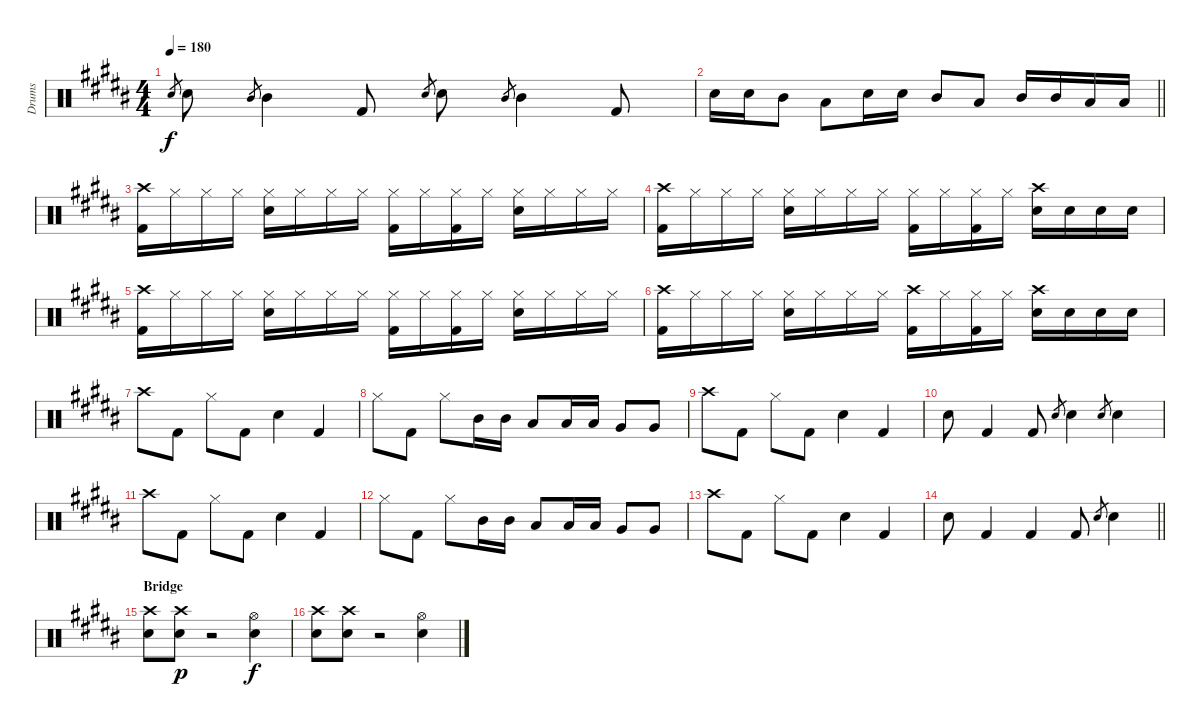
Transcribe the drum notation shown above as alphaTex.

\track ("Drums" "Drums") {instrument percussion}
\staff {score}
\articulation defaults
\ts (4 4)
\tempo 180
\clef neutral
\ks g#minor "Snare (hit) 2".8{gr dy f} "Snare (hit) 2".8 "Mid Tom (hit)".8{gr} "Mid Tom (hit)".4 "Kick (hit) 2".8 "Snare (hit) 2".8{gr} "Snare (hit) 2".8 "Mid Tom (hit)".8{gr} "Mid Tom (hit)".4 "Kick (hit) 2".8
|
\barLineRight lightlight "Snare (hit) 2".16 "Snare (hit) 2".16 "Mid Tom (hit)".8 "Low Tom (hit)".8 "Snare (hit) 2".16 "Snare (hit) 2".16 "Mid Tom (hit)".8 "Low Tom (hit)".8 "Mid Tom (hit)".16 "Mid Tom (hit)".16 "Low Tom (hit)".16 "Low Tom (hit)".16
|
("Crash high (hit)" "Kick (hit) 2").16 "Hi-Hat (closed)".16 "Hi-Hat (closed)".16 "Hi-Hat (closed)".16 ("Hi-Hat (closed)" "Snare (hit) 2").16 "Hi-Hat (closed)".16 "Hi-Hat (closed)".16 "Hi-Hat (closed)".16 ("Hi-Hat (closed)" "Kick (hit) 2").16 "Hi-Hat (closed)".16 ("Hi-Hat (closed)" "Kick (hit) 2").16 "Hi-Hat (closed)".16 ("Hi-Hat (closed)" "Snare (hit) 2").16 "Hi-Hat (closed)".16 "Hi-Hat (closed)".16 "Hi-Hat (closed)".16 |
("Crash high (hit)" "Kick (hit) 2").16 "Hi-Hat (closed)".16 "Hi-Hat (closed)".16 "Hi-Hat (closed)".16 ("Hi-Hat (closed)" "Snare (hit) 2").16 "Hi-Hat (closed)".16 "Hi-Hat (closed)".16 "Hi-Hat (closed)".16 ("Hi-Hat (closed)" "Kick (hit) 2").16 "Hi-Hat (closed)".16 ("Hi-Hat (closed)" "Kick (hit) 2").16 "Hi-Hat (closed)".16 ("Crash high (hit)" "Snare (hit) 2").16 "Snare (hit) 2".16 "Snare (hit) 2".16 "Snare (hit) 2".16 |
("Crash high (hit)" "Kick (hit) 2").16 "Hi-Hat (closed)".16 "Hi-Hat (closed)".16 "Hi-Hat (closed)".16 ("Hi-Hat (closed)" "Snare (hit) 2").16 "Hi-Hat (closed)".16 "Hi-Hat (closed)".16 "Hi-Hat (closed)".16 ("Hi-Hat (closed)" "Kick (hit) 2").16 "Hi-Hat (closed)".16 ("Hi-Hat (closed)" "Kick (hit) 2").16 "Hi-Hat (closed)".16 ("Hi-Hat (closed)" "Snare (hit) 2").16 "Hi-Hat (closed)".16 "Hi-Hat (closed)".16 "Hi-Hat (closed)".16 |
("Crash high (hit)" "Kick (hit) 2").16 "Hi-Hat (closed)".16 "Hi-Hat (closed)".16 "Hi-Hat (closed)".16 ("Hi-Hat (closed)" "Snare (hit) 2").16 "Hi-Hat (closed)".16 "Hi-Hat (closed)".16 "Hi-Hat (closed)".16 ("Crash high (hit)" "Kick (hit) 2").16 "Hi-Hat (closed)".16 ("Hi-Hat (closed)" "Kick (hit) 2").16 "Hi-Hat (closed)".16 ("Crash high (hit)" "Snare (hit) 2").16 "Snare (hit) 2".16 "Snare (hit) 2".16 "Snare (hit) 2".16 |
"Crash high (hit)".8 "Kick (hit) 2".8 "Hi-Hat (closed)".8 "Kick (hit) 2".8 "Snare (hit) 2".4 "Kick (hit) 2".4 |
"Hi-Hat (closed)".8 "Kick (hit) 2".8 "Hi-Hat (closed)".8 "Mid Tom (hit)".16 "Mid Tom (hit)".16 "Low Tom (hit)".8 "Low Tom (hit)".16 "Low Tom (hit)".16 "Very Low Tom (hit)".8 "Very Low Tom (hit)".8 |
"Crash high (hit)".8 "Kick (hit) 2".8 "Hi-Hat (closed)".8 "Kick (hit) 2".8 "Snare (hit) 2".4 "Kick (hit) 2".4 |
"Snare (hit) 2".8 "Kick (hit) 2".4 "Kick (hit) 2".8 "Snare (hit) 2".8{gr} "Snare (hit) 2".4 "Snare (hit) 2".8{gr} "Snare (hit) 2".4 |
"Crash high (hit)".8 "Kick (hit) 2".8 "Hi-Hat (closed)".8 "Kick (hit) 2".8 "Snare (hit) 2".4 "Kick (hit) 2".4 |
"Hi-Hat (closed)".8 "Kick (hit) 2".8 "Hi-Hat (closed)".8 "Mid Tom (hit)".16 "Mid Tom (hit)".16 "Low Tom (hit)".8 "Low Tom (hit)".16 "Low Tom (hit)".16 "Very Low Tom (hit)".8 "Very Low Tom (hit)".8 |
"Crash high (hit)".8 "Kick (hit) 2".8 "Hi-Hat (closed)".8 "Kick (hit) 2".8 "Snare (hit) 2".4 "Kick (hit) 2".4 |
\barLineRight lightlight "Snare (hit) 2".8 "Kick (hit) 2".4 "Kick (hit) 2".4 "Kick (hit) 2".8 "Snare (hit) 2".8{gr} "Snare (hit) 2".4
|
\section ("" "Bridge")
("Crash high (hit)" "Snare (hit) 2").8 ("Crash high (hit)" "Snare (hit) 2").8{dy p} r.2 ("Hi-Hat (open)" "Snare (hit) 2").4{dy f} |
("Crash high (hit)" "Snare (hit) 2").8 ("Crash high (hit)" "Snare (hit) 2").8 r.2 ("Hi-Hat (open)" "Snare (hit) 2").4
